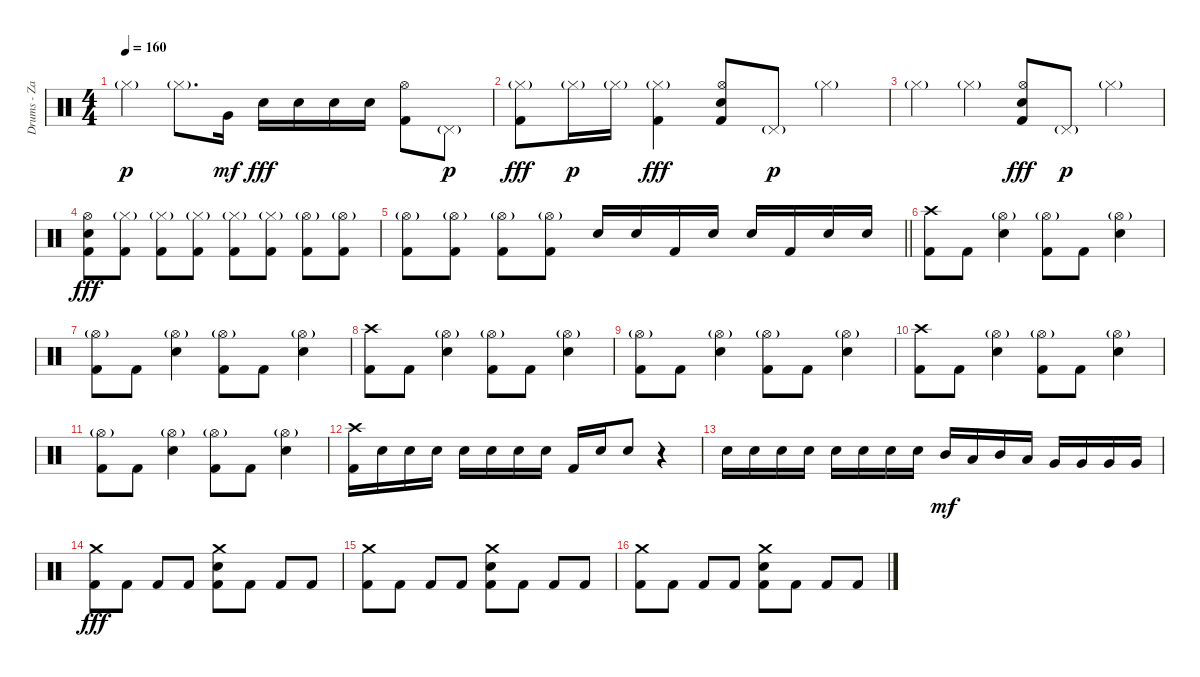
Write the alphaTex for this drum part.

\track ("Drums - Zac Farro" "Drums - Za") {instrument percussion}
\staff {score}
\articulation defaults
\ts (4 4)
\tempo 160
\clef neutral
\ks c "Hi-Hat (closed)"{g}.4{dy p} "Hi-Hat (closed)"{g}.8{d} "Very Low Tom (hit)".16{dy mf balance 16} "Electric Snare (hit)".16{dy fff balance 8} "Electric Snare (hit)".16 "Electric Snare (hit)".16 "Electric Snare (hit)".16
("Hi-Hat (open)" "Kick (hit) 2").8 "Pedal Hi-Hat (hit)"{g}.8{dy p} |
("Hi-Hat (closed)"{g} "Kick (hit) 2").8{dy fff} "Hi-Hat (closed)"{g}.16{dy p} "Hi-Hat (closed)"{g}.16 ("Hi-Hat (closed)"{g} "Kick (hit) 2").4{dy fff} ("Hi-Hat (open)" "Electric Snare (hit)" "Kick (hit) 2").8 "Pedal Hi-Hat (hit)"{g}.8{dy p} "Hi-Hat (closed)"{g}.4 |
"Hi-Hat (closed)"{g}.4 "Hi-Hat (closed)"{g}.4 ("Hi-Hat (open)" "Electric Snare (hit)" "Kick (hit) 2").8{dy fff} "Pedal Hi-Hat (hit)"{g}.8{dy p} "Hi-Hat (closed)"{g}.4 |
("Hi-Hat (open)" "Electric Snare (hit)" "Kick (hit) 2").8{dy fff} ("Hi-Hat (closed)"{g} "Kick (hit) 2").8 ("Hi-Hat (closed)"{g} "Kick (hit) 2").8 ("Hi-Hat (closed)"{g} "Kick (hit) 2").8 ("Hi-Hat (closed)"{g} "Kick (hit) 2").8 ("Hi-Hat (closed)"{g} "Kick (hit) 2").8 ("Hi-Hat (open)"{g} "Kick (hit) 2").8 ("Hi-Hat (open)"{g} "Kick (hit) 2").8 |
\barLineRight lightlight
("Hi-Hat (open)"{g} "Kick (hit) 2").8 ("Hi-Hat (open)"{g} "Kick (hit) 2").8 ("Hi-Hat (open)"{g} "Kick (hit) 2").8 ("Hi-Hat (open)"{g} "Kick (hit) 2").8 "Electric Snare (hit)".16 "Electric Snare (hit)".16 "Kick (hit) 2".16 "Electric Snare (hit)".16 "Electric Snare (hit)".16 "Kick (hit) 2".16 "Electric Snare (hit)".16 "Electric Snare (hit)".16 |
("Crash high (hit)" "Kick (hit) 2").8 "Kick (hit) 2".8 ("Hi-Hat (open)"{g} "Electric Snare (hit)").4 ("Hi-Hat (open)"{g} "Kick (hit) 2").8 "Kick (hit) 2".8 ("Hi-Hat (open)"{g} "Electric Snare (hit)").4 |
("Hi-Hat (open)"{g} "Kick (hit) 2").8 "Kick (hit) 2".8 ("Hi-Hat (open)"{g} "Electric Snare (hit)").4 ("Hi-Hat (open)"{g} "Kick (hit) 2").8 "Kick (hit) 2".8 ("Hi-Hat (open)"{g} "Electric Snare (hit)").4 |
("Crash high (hit)" "Kick (hit) 2").8 "Kick (hit) 2".8 ("Hi-Hat (open)"{g} "Electric Snare (hit)").4 ("Hi-Hat (open)"{g} "Kick (hit) 2").8 "Kick (hit) 2".8 ("Hi-Hat (open)"{g} "Electric Snare (hit)").4 |
("Hi-Hat (open)"{g} "Kick (hit) 2").8 "Kick (hit) 2".8 ("Hi-Hat (open)"{g} "Electric Snare (hit)").4 ("Hi-Hat (open)"{g} "Kick (hit) 2").8 "Kick (hit) 2".8 ("Hi-Hat (open)"{g} "Electric Snare (hit)").4 |
("Crash high (hit)" "Kick (hit) 2").8 "Kick (hit) 2".8 ("Hi-Hat (open)"{g} "Electric Snare (hit)").4 ("Hi-Hat (open)"{g} "Kick (hit) 2").8 "Kick (hit) 2".8 ("Hi-Hat (open)"{g} "Electric Snare (hit)").4 |
("Hi-Hat (open)"{g} "Kick (hit) 2").8 "Kick (hit) 2".8 ("Hi-Hat (open)"{g} "Electric Snare (hit)").4 ("Hi-Hat (open)"{g} "Kick (hit) 2").8 "Kick (hit) 2".8 ("Hi-Hat (open)"{g} "Electric Snare (hit)").4 |
("Crash high (hit)" "Kick (hit) 2").16 "Electric Snare (hit)".16 "Electric Snare (hit)".16 "Electric Snare (hit)".16 "Electric Snare (hit)".16 "Electric Snare (hit)".16 "Electric Snare (hit)".16 "Electric Snare (hit)".16 "Kick (hit) 2".16 "Electric Snare (hit)".16 "Electric Snare (hit)".8 r.4 |
"Electric Snare (hit)".16 "Electric Snare (hit)".16 "Electric Snare (hit)".16 "Electric Snare (hit)".16 "Electric Snare (hit)".16 "Electric Snare (hit)".16 "Electric Snare (hit)".16 "Electric Snare (hit)".16 "Mid Tom (hit)".16{dy mf} "Low Tom (hit)".16 "Mid Tom (hit)".16 "Low Tom (hit)".16 "Very Low Tom (hit)".16 "Very Low Tom (hit)".16 "Very Low Tom (hit)".16 "Very Low Tom (hit)".16 |
("Crash medium (hit)" "Kick (hit) 2").8{dy fff} "Kick (hit) 2".8 "Kick (hit) 2".8 "Kick (hit) 2".8 ("Crash medium (hit)" "Electric Snare (hit)" "Kick (hit) 2").8 "Kick (hit) 2".8 "Kick (hit) 2".8 "Kick (hit) 2".8 |
("Crash medium (hit)" "Kick (hit) 2").8 "Kick (hit) 2".8 "Kick (hit) 2".8 "Kick (hit) 2".8 ("Crash medium (hit)" "Electric Snare (hit)" "Kick (hit) 2").8 "Kick (hit) 2".8 "Kick (hit) 2".8 "Kick (hit) 2".8 |
("Crash medium (hit)" "Kick (hit) 2").8 "Kick (hit) 2".8 "Kick (hit) 2".8 "Kick (hit) 2".8 ("Crash medium (hit)" "Electric Snare (hit)" "Kick (hit) 2").8 "Kick (hit) 2".8 "Kick (hit) 2".8 "Kick (hit) 2".8
